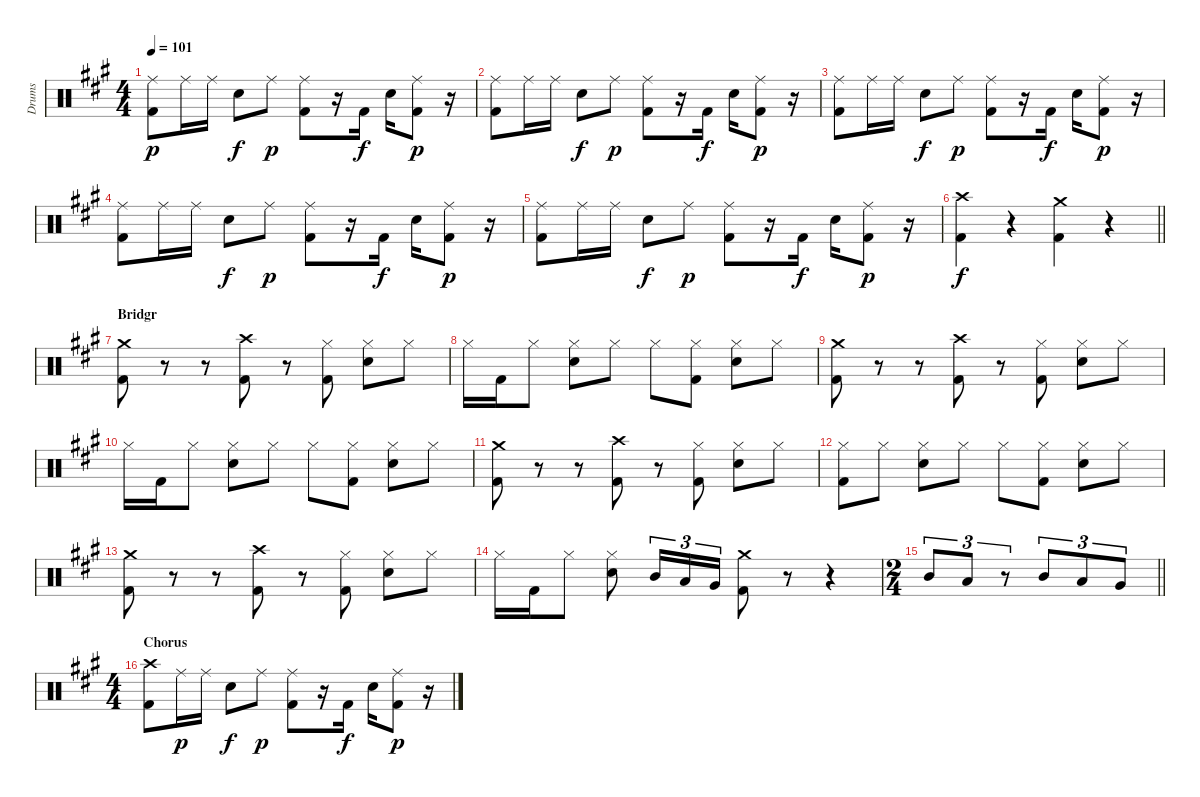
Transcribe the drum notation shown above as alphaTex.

\track ("Drums" "Drums") {instrument percussion}
\staff {score}
\articulation defaults
\ts (4 4)
\tempo 101
\clef neutral
\ks a
("Ride (middle)" "Kick (hit) 2").8{dy p} "Ride (middle)".16 "Ride (middle)".16 "Electric Snare (hit)".8{dy f} "Ride (middle)".8{dy p} ("Ride (middle)" "Kick (hit) 2").8 r.16 "Kick (hit) 2".16{dy f} "Electric Snare (hit)".16 ("Ride (middle)" "Kick (hit) 2").8{dy p} r.16 |
("Ride (middle)" "Kick (hit) 2").8 "Ride (middle)".16 "Ride (middle)".16 "Electric Snare (hit)".8{dy f} "Ride (middle)".8{dy p} ("Ride (middle)" "Kick (hit) 2").8 r.16 "Kick (hit) 2".16{dy f} "Electric Snare (hit)".16 ("Ride (middle)" "Kick (hit) 2").8{dy p} r.16 |
("Ride (middle)" "Kick (hit) 2").8 "Ride (middle)".16 "Ride (middle)".16 "Electric Snare (hit)".8{dy f} "Ride (middle)".8{dy p} ("Ride (middle)" "Kick (hit) 2").8 r.16 "Kick (hit) 2".16{dy f} "Electric Snare (hit)".16 ("Ride (middle)" "Kick (hit) 2").8{dy p} r.16 |
("Ride (middle)" "Kick (hit) 2").8 "Ride (middle)".16 "Ride (middle)".16 "Electric Snare (hit)".8{dy f} "Ride (middle)".8{dy p} ("Ride (middle)" "Kick (hit) 2").8 r.16 "Kick (hit) 2".16{dy f} "Electric Snare (hit)".16 ("Ride (middle)" "Kick (hit) 2").8{dy p} r.16 |
("Ride (middle)" "Kick (hit) 2").8 "Ride (middle)".16 "Ride (middle)".16 "Electric Snare (hit)".8{dy f} "Ride (middle)".8{dy p} ("Ride (middle)" "Kick (hit) 2").8 r.16 "Kick (hit) 2".16{dy f} "Electric Snare (hit)".16 ("Ride (middle)" "Kick (hit) 2").8{dy p} r.16 |
\barLineRight lightlight
("Crash high (hit)" "Kick (hit) 2").4{dy f} r.4 ("Crash medium (hit)" "Kick (hit) 2").4 r.4 |
\section ("" "Bridgr")
("Crash medium (hit)" "Kick (hit) 2").8 r.8 r.8 ("Crash high (hit)" "Kick (hit) 2").8 r.8 ("Hi-Hat (closed)" "Kick (hit) 2").8 ("Hi-Hat (closed)" "Electric Snare (hit)").8 "Hi-Hat (closed)".8 |
"Hi-Hat (closed)".16 "Kick (hit) 2".16 "Hi-Hat (closed)".8 ("Hi-Hat (closed)" "Electric Snare (hit)").8 "Hi-Hat (closed)".8 "Hi-Hat (closed)".8 ("Hi-Hat (closed)" "Kick (hit) 2").8 ("Hi-Hat (closed)" "Electric Snare (hit)").8 "Hi-Hat (closed)".8 |
("Crash medium (hit)" "Kick (hit) 2").8 r.8 r.8 ("Crash high (hit)" "Kick (hit) 2").8 r.8 ("Hi-Hat (closed)" "Kick (hit) 2").8 ("Hi-Hat (closed)" "Electric Snare (hit)").8 "Hi-Hat (closed)".8 |
"Hi-Hat (closed)".16 "Kick (hit) 2".16 "Hi-Hat (closed)".8 ("Hi-Hat (closed)" "Electric Snare (hit)").8 "Hi-Hat (closed)".8 "Hi-Hat (closed)".8 ("Hi-Hat (closed)" "Kick (hit) 2").8 ("Hi-Hat (closed)" "Electric Snare (hit)").8 "Hi-Hat (closed)".8 |
("Crash medium (hit)" "Kick (hit) 2").8 r.8 r.8 ("Crash high (hit)" "Kick (hit) 2").8 r.8 ("Hi-Hat (closed)" "Kick (hit) 2").8 ("Hi-Hat (closed)" "Electric Snare (hit)").8 "Hi-Hat (closed)".8 |
("Hi-Hat (closed)" "Kick (hit) 2").8 "Hi-Hat (closed)".8 ("Hi-Hat (closed)" "Electric Snare (hit)").8 "Hi-Hat (closed)".8 "Hi-Hat (closed)".8 ("Hi-Hat (closed)" "Kick (hit) 2").8 ("Hi-Hat (closed)" "Electric Snare (hit)").8 "Hi-Hat (closed)".8 |
("Crash medium (hit)" "Kick (hit) 2").8 r.8 r.8 ("Crash high (hit)" "Kick (hit) 2").8 r.8 ("Hi-Hat (closed)" "Kick (hit) 2").8 ("Hi-Hat (closed)" "Electric Snare (hit)").8 "Hi-Hat (closed)".8 |
"Hi-Hat (closed)".16 "Kick (hit) 2".16 "Hi-Hat (closed)".8 ("Hi-Hat (closed)" "Electric Snare (hit)").8 "Mid Tom (hit)".16{tu (3 2)} "Low Tom (hit)".16{tu (3 2)} "Very Low Tom (hit)".16{tu (3 2)} ("Crash medium (hit)" "Kick (hit) 2").8 r.8 r.4 |
\ts (2 4)
\barLineRight lightlight "Mid Tom (hit)".8{tu (3 2)} "Low Tom (hit)".8{tu (3 2)}
r.8{tu (3 2)} "Mid Tom (hit)".8{tu (3 2)} "Low Tom (hit)".8{tu (3 2)} "Very Low Tom (hit)".8{tu (3 2)} |
\ts (4 4)
\section ("" "Chorus")
("Crash high (hit)" "Kick (hit) 2").8 "Ride (middle)".16{dy p} "Ride (middle)".16 "Electric Snare (hit)".8{dy f} "Ride (middle)".8{dy p} ("Ride (middle)" "Kick (hit) 2").8 r.16 "Kick (hit) 2".16{dy f} "Electric Snare (hit)".16 ("Ride (middle)" "Kick (hit) 2").8{dy p} r.16
